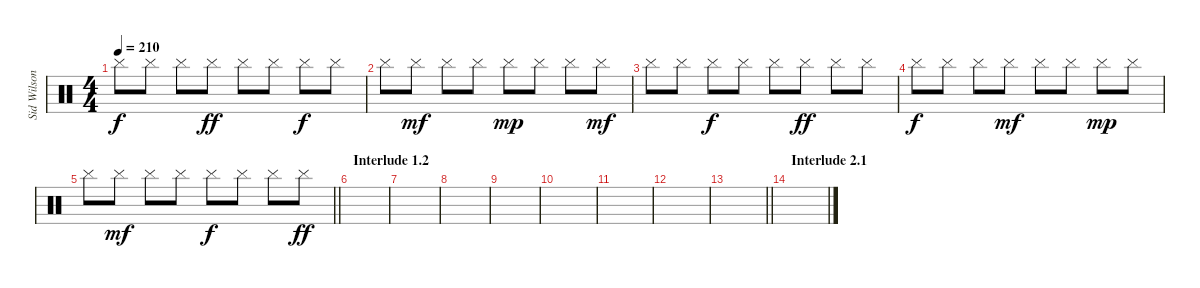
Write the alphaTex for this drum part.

\track ("Sid Wilson" "Sid Wilson") {instrument percussion}
\staff {score}
\articulation defaults
\ts (4 4)
\tempo 210
\clef neutral
\ks c "Cymbal (hit)".8{dy f} "Cymbal (hit)".8 "Cymbal (hit)".8 "Cymbal (hit)".8{dy ff} "Cymbal (hit)".8 "Cymbal (hit)".8 "Cymbal (hit)".8{dy f} "Cymbal (hit)".8
|
"Cymbal (hit)".8 "Cymbal (hit)".8{dy mf} "Cymbal (hit)".8 "Cymbal (hit)".8 "Cymbal (hit)".8{dy mp} "Cymbal (hit)".8 "Cymbal (hit)".8 "Cymbal (hit)".8{dy mf} |
"Cymbal (hit)".8 "Cymbal (hit)".8 "Cymbal (hit)".8{dy f} "Cymbal (hit)".8 "Cymbal (hit)".8 "Cymbal (hit)".8{dy ff} "Cymbal (hit)".8 "Cymbal (hit)".8 |
"Cymbal (hit)".8{dy f} "Cymbal (hit)".8 "Cymbal (hit)".8 "Cymbal (hit)".8{dy mf} "Cymbal (hit)".8 "Cymbal (hit)".8 "Cymbal (hit)".8{dy mp} "Cymbal (hit)".8 |
\barLineRight lightlight "Cymbal (hit)".8 "Cymbal (hit)".8{dy mf} "Cymbal (hit)".8 "Cymbal (hit)".8 "Cymbal (hit)".8{dy f} "Cymbal (hit)".8 "Cymbal (hit)".8 "Cymbal (hit)".8{dy ff}
|
\section ("" "Interlude 1.2")
|
|
|
|
|
|
|
\barLineRight lightlight
|
\section ("" "Interlude 2.1")
